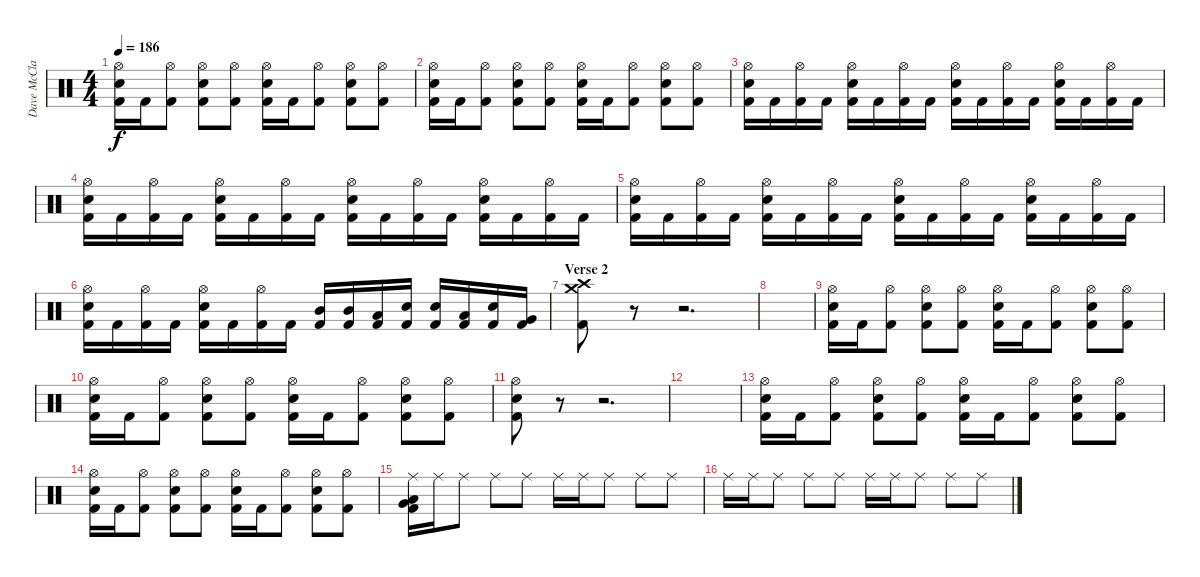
\track ("Dave McClain" "Dave McCla") {instrument percussion}
\staff {score}
\articulation defaults
\ts (4 4)
\tempo 186
\clef neutral
\ks c
("Hi-Hat (open)" "Snare (hit) 2" "Kick (hit) 2").16{dy f} "Kick (hit) 2".16 ("Hi-Hat (open)" "Kick (hit) 2").8 ("Hi-Hat (open)" "Snare (hit) 2" "Kick (hit) 2").8 ("Hi-Hat (open)" "Kick (hit) 2").8 ("Hi-Hat (open)" "Snare (hit) 2" "Kick (hit) 2").16 "Kick (hit) 2".16 ("Hi-Hat (open)" "Kick (hit) 2").8 ("Hi-Hat (open)" "Snare (hit) 2" "Kick (hit) 2").8 ("Hi-Hat (open)" "Kick (hit) 2").8 |
("Hi-Hat (open)" "Snare (hit) 2" "Kick (hit) 2").16 "Kick (hit) 2".16 ("Hi-Hat (open)" "Kick (hit) 2").8 ("Hi-Hat (open)" "Snare (hit) 2" "Kick (hit) 2").8 ("Hi-Hat (open)" "Kick (hit) 2").8 ("Hi-Hat (open)" "Snare (hit) 2" "Kick (hit) 2").16 "Kick (hit) 2".16 ("Hi-Hat (open)" "Kick (hit) 2").8 ("Hi-Hat (open)" "Snare (hit) 2" "Kick (hit) 2").8 ("Hi-Hat (open)" "Kick (hit) 2").8 |
("Hi-Hat (open)" "Snare (hit) 2" "Kick (hit) 2").16 "Kick (hit) 2".16 ("Hi-Hat (open)" "Kick (hit) 2").16 "Kick (hit) 2".16 ("Hi-Hat (open)" "Snare (hit) 2" "Kick (hit) 2").16 "Kick (hit) 2".16 ("Hi-Hat (open)" "Kick (hit) 2").16 "Kick (hit) 2".16 ("Hi-Hat (open)" "Snare (hit) 2" "Kick (hit) 2").16 "Kick (hit) 2".16 ("Hi-Hat (open)" "Kick (hit) 2").16 "Kick (hit) 2".16 ("Hi-Hat (open)" "Snare (hit) 2" "Kick (hit) 2").16 "Kick (hit) 2".16 ("Hi-Hat (open)" "Kick (hit) 2").16 "Kick (hit) 2".16 |
("Hi-Hat (open)" "Snare (hit) 2" "Kick (hit) 2").16 "Kick (hit) 2".16 ("Hi-Hat (open)" "Kick (hit) 2").16 "Kick (hit) 2".16 ("Hi-Hat (open)" "Snare (hit) 2" "Kick (hit) 2").16 "Kick (hit) 2".16 ("Hi-Hat (open)" "Kick (hit) 2").16 "Kick (hit) 2".16 ("Hi-Hat (open)" "Snare (hit) 2" "Kick (hit) 2").16 "Kick (hit) 2".16 ("Hi-Hat (open)" "Kick (hit) 2").16 "Kick (hit) 2".16 ("Hi-Hat (open)" "Snare (hit) 2" "Kick (hit) 2").16 "Kick (hit) 2".16 ("Hi-Hat (open)" "Kick (hit) 2").16 "Kick (hit) 2".16 |
("Hi-Hat (open)" "Snare (hit) 2" "Kick (hit) 2").16 "Kick (hit) 2".16 ("Hi-Hat (open)" "Kick (hit) 2").16 "Kick (hit) 2".16 ("Hi-Hat (open)" "Snare (hit) 2" "Kick (hit) 2").16 "Kick (hit) 2".16 ("Hi-Hat (open)" "Kick (hit) 2").16 "Kick (hit) 2".16 ("Hi-Hat (open)" "Snare (hit) 2" "Kick (hit) 2").16 "Kick (hit) 2".16 ("Hi-Hat (open)" "Kick (hit) 2").16 "Kick (hit) 2".16 ("Hi-Hat (open)" "Snare (hit) 2" "Kick (hit) 2").16 "Kick (hit) 2".16 ("Hi-Hat (open)" "Kick (hit) 2").16 "Kick (hit) 2".16 |
("Hi-Hat (open)" "Snare (hit) 2" "Kick (hit) 2").16 "Kick (hit) 2".16 ("Hi-Hat (open)" "Kick (hit) 2").16 "Kick (hit) 2".16 ("Hi-Hat (open)" "Snare (hit) 2" "Kick (hit) 2").16 "Kick (hit) 2".16 ("Hi-Hat (open)" "Kick (hit) 2").16 "Kick (hit) 2".16 ("Mid Tom (hit)" "Kick (hit) 2").16 ("Mid Tom (hit)" "Kick (hit) 2").16 ("Low Tom (hit)" "Kick (hit) 2").16 ("Snare (hit) 2" "Kick (hit) 2").16 ("Snare (hit) 2" "Kick (hit) 2").16 ("Low Tom (hit)" "Kick (hit) 2").16 ("Snare (hit) 2" "Kick (hit) 2").16 ("Very Low Tom (hit)" "Kick (hit) 2").16 |
\section ("" "Verse 2")
("Crash medium (hit)" "Crash high (hit)" "Kick (hit) 2").8 r.8 r.2{d} |
|
("Hi-Hat (open)" "Snare (hit) 2" "Kick (hit) 2").16 "Kick (hit) 2".16 ("Hi-Hat (open)" "Kick (hit) 2").8 ("Hi-Hat (open)" "Snare (hit) 2" "Kick (hit) 2").8 ("Hi-Hat (open)" "Kick (hit) 2").8 ("Hi-Hat (open)" "Snare (hit) 2" "Kick (hit) 2").16 "Kick (hit) 2".16 ("Hi-Hat (open)" "Kick (hit) 2").8 ("Hi-Hat (open)" "Snare (hit) 2" "Kick (hit) 2").8 ("Hi-Hat (open)" "Kick (hit) 2").8 |
("Hi-Hat (open)" "Snare (hit) 2" "Kick (hit) 2").16 "Kick (hit) 2".16 ("Hi-Hat (open)" "Kick (hit) 2").8 ("Hi-Hat (open)" "Snare (hit) 2" "Kick (hit) 2").8 ("Hi-Hat (open)" "Kick (hit) 2").8 ("Hi-Hat (open)" "Snare (hit) 2" "Kick (hit) 2").16 "Kick (hit) 2".16 ("Hi-Hat (open)" "Kick (hit) 2").8 ("Hi-Hat (open)" "Snare (hit) 2" "Kick (hit) 2").8 ("Hi-Hat (open)" "Kick (hit) 2").8 |
("Hi-Hat (open)" "Snare (hit) 2" "Kick (hit) 2").8 r.8 r.2{d} |
|
("Hi-Hat (open)" "Snare (hit) 2" "Kick (hit) 2").16 "Kick (hit) 2".16 ("Hi-Hat (open)" "Kick (hit) 2").8 ("Hi-Hat (open)" "Snare (hit) 2" "Kick (hit) 2").8 ("Hi-Hat (open)" "Kick (hit) 2").8 ("Hi-Hat (open)" "Snare (hit) 2" "Kick (hit) 2").16 "Kick (hit) 2".16 ("Hi-Hat (open)" "Kick (hit) 2").8 ("Hi-Hat (open)" "Snare (hit) 2" "Kick (hit) 2").8 ("Hi-Hat (open)" "Kick (hit) 2").8 |
("Hi-Hat (open)" "Snare (hit) 2" "Kick (hit) 2").16 "Kick (hit) 2".16 ("Hi-Hat (open)" "Kick (hit) 2").8 ("Hi-Hat (open)" "Snare (hit) 2" "Kick (hit) 2").8 ("Hi-Hat (open)" "Kick (hit) 2").8 ("Hi-Hat (open)" "Snare (hit) 2" "Kick (hit) 2").16 "Kick (hit) 2".16 ("Hi-Hat (open)" "Kick (hit) 2").8 ("Hi-Hat (open)" "Snare (hit) 2" "Kick (hit) 2").8 ("Hi-Hat (open)" "Kick (hit) 2").8 |
("Ride (middle)" "Low Floor Tom (hit)" "Very Low Tom (hit)" "Kick (hit) 2").16 "Ride (middle)".16 "Ride (middle)".8 "Ride (middle)".8 "Ride (middle)".8 "Ride (middle)".16 "Ride (middle)".16 "Ride (middle)".8 "Ride (middle)".8 "Ride (middle)".8 |
"Ride (middle)".16 "Ride (middle)".16 "Ride (middle)".8 "Ride (middle)".8 "Ride (middle)".8 "Ride (middle)".16 "Ride (middle)".16 "Ride (middle)".8 "Ride (middle)".8 "Ride (middle)".8
